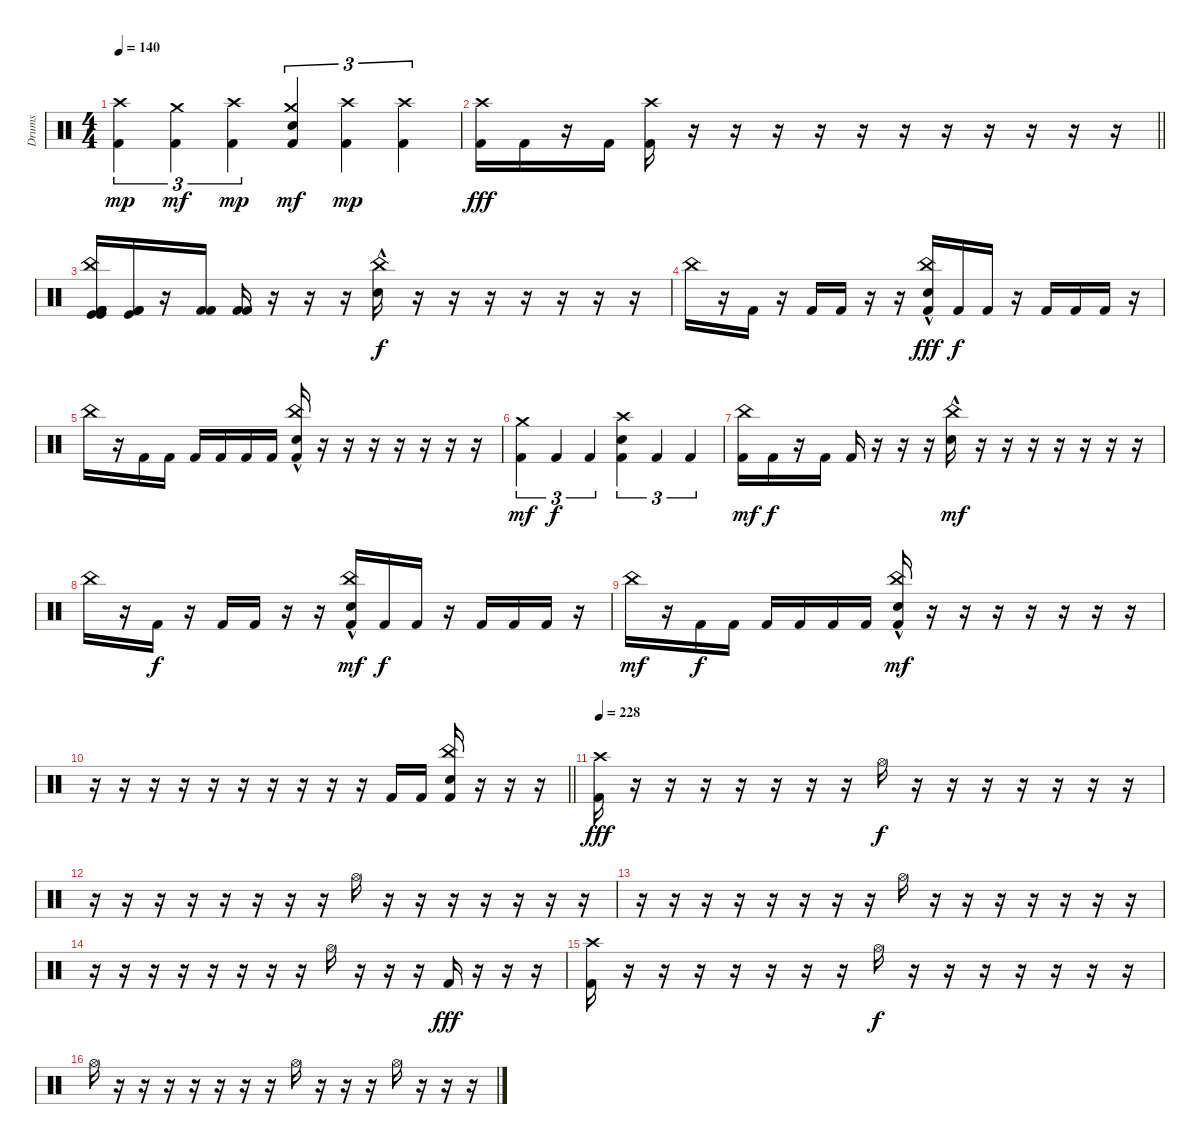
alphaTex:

\track ("Drums" "Drums") {instrument percussion}
\staff {score}
\articulation defaults
\ts (4 4)
\tempo 140
\clef neutral
\ks c
("Crash high (hit)" "Kick (hit) 2").4{tu (3 2) dy mp} ("Crash medium (hit)" "Kick (hit) 2").4{tu (3 2) dy mf} ("Crash high (hit)" "Kick (hit) 2").4{tu (3 2) dy mp} ("Crash medium (hit)" "Electric Snare (hit)" "Kick (hit) 2").4{tu (3 2) dy mf} ("Crash high (hit)" "Kick (hit) 2").4{tu (3 2) dy mp} ("Crash high (hit)" "Kick (hit) 2").4{tu (3 2)} |
\barLineRight lightlight
("Crash high (hit)" "Kick (hit) 2").16{dy fff} "Kick (hit) 2".16 r.16 "Kick (hit) 2".16 ("Crash high (hit)" "Kick (hit) 2").16 r.16 r.16 r.16 r.16 r.16 r.16 r.16 r.16 r.16 r.16 r.16 |
("China (hit)" "Kick (hit)" "Kick (hit)" "Kick (hit) 2" "Kick (hit) 2" "Kick (hit) 2").16 ("Kick (hit)" "Kick (hit) 2" "Kick (hit) 2").16 r.16 ("Kick (hit) 2" "Kick (hit) 2").16 ("Kick (hit) 2" "Kick (hit) 2").16 r.16 r.16 r.16 ("China (hit)" "Snare (hit) 2"{hac}).16{dy f} r.16 r.16 r.16 r.16 r.16 r.16 r.16 |
"China (hit)".16 r.16 "Kick (hit) 2".16 r.16 "Kick (hit) 2".16 "Kick (hit) 2".16 r.16 r.16 ("China (hit)" "Snare (hit) 2"{hac} "Kick (hit) 2").16{dy fff} "Kick (hit) 2".16{dy f} "Kick (hit) 2".16 r.16 "Kick (hit) 2".16 "Kick (hit) 2".16 "Kick (hit) 2".16 r.16 |
"China (hit)".16 r.16 "Kick (hit) 2".16 "Kick (hit) 2".16 "Kick (hit) 2".16 "Kick (hit) 2".16 "Kick (hit) 2".16 "Kick (hit) 2".16 ("China (hit)" "Snare (hit) 2"{hac} "Kick (hit) 2").16 r.16 r.16 r.16 r.16 r.16 r.16 r.16 |
("Crash medium (hit)" "Kick (hit) 2").4{tu (3 2) dy mf} "Kick (hit) 2".4{tu (3 2) dy f} "Kick (hit) 2".4{tu (3 2)} ("Crash high (hit)" "Electric Snare (hit)" "Kick (hit) 2").4{tu (3 2)} "Kick (hit) 2".4{tu (3 2)} "Kick (hit) 2".4{tu (3 2)} |
("China (hit)" "Kick (hit) 2").16{dy mf} "Kick (hit) 2".16{dy f} r.16 "Kick (hit) 2".16 "Kick (hit) 2".16 r.16 r.16 r.16 ("China (hit)" "Snare (hit) 2"{hac}).16{dy mf} r.16 r.16 r.16 r.16 r.16 r.16 r.16 |
"China (hit)".16 r.16 "Kick (hit) 2".16{dy f} r.16 "Kick (hit) 2".16 "Kick (hit) 2".16 r.16 r.16 ("China (hit)" "Snare (hit) 2"{hac} "Kick (hit) 2").16{dy mf} "Kick (hit) 2".16{dy f} "Kick (hit) 2".16 r.16 "Kick (hit) 2".16 "Kick (hit) 2".16 "Kick (hit) 2".16 r.16 |
"China (hit)".16{dy mf} r.16 "Kick (hit) 2".16{dy f} "Kick (hit) 2".16 "Kick (hit) 2".16 "Kick (hit) 2".16 "Kick (hit) 2".16 "Kick (hit) 2".16 ("China (hit)" "Snare (hit) 2"{hac} "Kick (hit) 2").16{dy mf} r.16 r.16 r.16 r.16 r.16 r.16 r.16 |
\barLineRight lightlight
r.16 r.16 r.16 r.16 r.16 r.16 r.16 r.16 r.16 r.16 "Kick (hit) 2".16 "Kick (hit) 2".16 ("China (hit)" "Snare (hit) 2" "Kick (hit) 2").16 r.16 r.16 r.16 |
\tempo 228
("Crash high (hit)" "Kick (hit) 2").16{dy fff} r.16 r.16 r.16 r.16 r.16 r.16 r.16 "Hi-Hat (open)".16{dy f} r.16 r.16 r.16 r.16 r.16 r.16 r.16 |
r.16 r.16 r.16 r.16 r.16 r.16 r.16 r.16 "Hi-Hat (open)".16 r.16 r.16 r.16 r.16 r.16 r.16 r.16 |
r.16 r.16 r.16 r.16 r.16 r.16 r.16 r.16 "Hi-Hat (open)".16 r.16 r.16 r.16 r.16 r.16 r.16 r.16 |
r.16 r.16 r.16 r.16 r.16 r.16 r.16 r.16 "Hi-Hat (open)".16 r.16 r.16 r.16 "Kick (hit) 2".16{dy fff} r.16 r.16 r.16 |
("Crash high (hit)" "Kick (hit) 2").16 r.16 r.16 r.16 r.16 r.16 r.16 r.16 "Hi-Hat (open)".16{dy f} r.16 r.16 r.16 r.16 r.16 r.16 r.16 |
"Hi-Hat (open)".16 r.16 r.16 r.16 r.16 r.16 r.16 r.16 "Hi-Hat (open)".16 r.16 r.16 r.16 "Hi-Hat (open)".16 r.16 r.16 r.16
